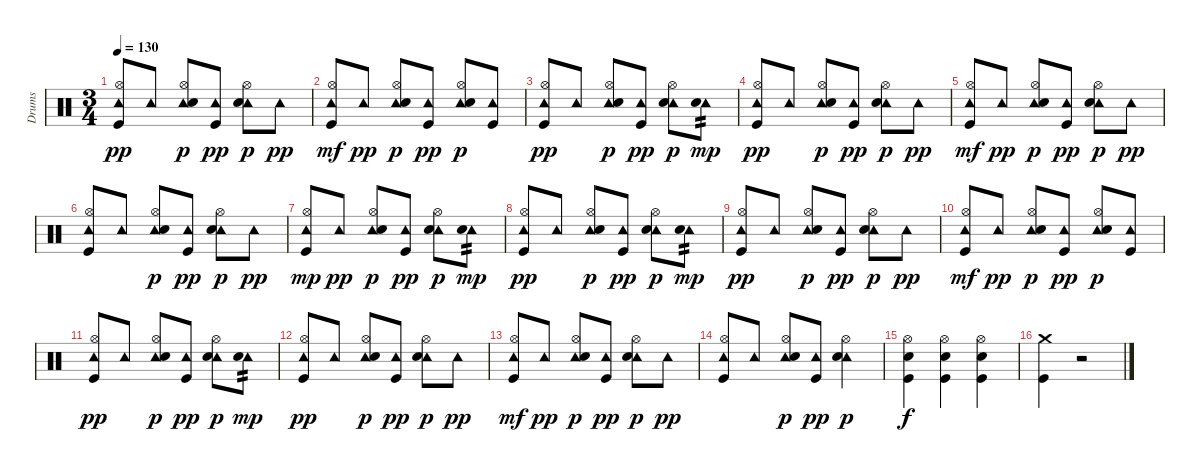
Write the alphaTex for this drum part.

\track ("Drums" "Drums") {instrument percussion}
\staff {score}
\articulation defaults
\ts (3 4)
\tempo 130
\clef neutral
\ks c
("Tambourine (hit)" "Hi-Hat (open)" "Kick (hit)").8{dy pp} "Tambourine (hit)".8 ("Tambourine (hit)" "Hi-Hat (open)" "Snare (hit) 2").8{dy p} ("Tambourine (hit)" "Kick (hit)").8{dy pp} ("Tambourine (hit)" "Hi-Hat (open)" "Snare (hit) 2").8{dy p} "Tambourine (hit)".8{dy pp} |
("Tambourine (hit)" "Hi-Hat (open)" "Kick (hit)").8{dy mf} "Tambourine (hit)".8{dy pp} ("Tambourine (hit)" "Hi-Hat (open)" "Snare (hit) 2").8{dy p} ("Tambourine (hit)" "Kick (hit)").8{dy pp} ("Tambourine (hit)" "Hi-Hat (open)" "Snare (hit) 2").8{dy p} ("Tambourine (hit)" "Kick (hit)").8 |
("Tambourine (hit)" "Hi-Hat (open)" "Kick (hit)").8{dy pp} "Tambourine (hit)".8 ("Tambourine (hit)" "Hi-Hat (open)" "Snare (hit) 2").8{dy p} ("Tambourine (hit)" "Kick (hit)").8{dy pp} ("Tambourine (hit)" "Hi-Hat (open)" "Snare (hit) 2").8{dy p} ("Tambourine (hit)" "Snare (hit) 2").8{tp 2 dy mp} |
("Tambourine (hit)" "Hi-Hat (open)" "Kick (hit)").8{dy pp} "Tambourine (hit)".8 ("Tambourine (hit)" "Hi-Hat (open)" "Snare (hit) 2").8{dy p} ("Tambourine (hit)" "Kick (hit)").8{dy pp} ("Tambourine (hit)" "Hi-Hat (open)" "Snare (hit) 2").8{dy p} "Tambourine (hit)".8{dy pp} |
("Tambourine (hit)" "Hi-Hat (open)" "Kick (hit)").8{dy mf} "Tambourine (hit)".8{dy pp} ("Tambourine (hit)" "Hi-Hat (open)" "Snare (hit) 2").8{dy p} ("Tambourine (hit)" "Kick (hit)").8{dy pp} ("Tambourine (hit)" "Hi-Hat (open)" "Snare (hit) 2").8{dy p} "Tambourine (hit)".8{dy pp} |
("Tambourine (hit)" "Hi-Hat (open)" "Kick (hit)").8 "Tambourine (hit)".8 ("Tambourine (hit)" "Hi-Hat (open)" "Snare (hit) 2").8{dy p} ("Tambourine (hit)" "Kick (hit)").8{dy pp} ("Tambourine (hit)" "Hi-Hat (open)" "Snare (hit) 2").8{dy p} "Tambourine (hit)".8{dy pp} |
("Tambourine (hit)" "Hi-Hat (open)" "Kick (hit)").8{dy mp} "Tambourine (hit)".8{dy pp} ("Tambourine (hit)" "Hi-Hat (open)" "Snare (hit) 2").8{dy p} ("Tambourine (hit)" "Kick (hit)").8{dy pp} ("Tambourine (hit)" "Hi-Hat (open)" "Snare (hit) 2").8{dy p} ("Tambourine (hit)" "Snare (hit) 2").8{tp 2 dy mp} |
("Tambourine (hit)" "Hi-Hat (open)" "Kick (hit)").8{dy pp} "Tambourine (hit)".8 ("Tambourine (hit)" "Hi-Hat (open)" "Snare (hit) 2").8{dy p} ("Tambourine (hit)" "Kick (hit)").8{dy pp} ("Tambourine (hit)" "Hi-Hat (open)" "Snare (hit) 2").8{dy p} ("Tambourine (hit)" "Snare (hit) 2").8{tp 2 dy mp} |
("Tambourine (hit)" "Hi-Hat (open)" "Kick (hit)").8{dy pp} "Tambourine (hit)".8 ("Tambourine (hit)" "Hi-Hat (open)" "Snare (hit) 2").8{dy p} ("Tambourine (hit)" "Kick (hit)").8{dy pp} ("Tambourine (hit)" "Hi-Hat (open)" "Snare (hit) 2").8{dy p} "Tambourine (hit)".8{dy pp} |
("Tambourine (hit)" "Hi-Hat (open)" "Kick (hit)").8{dy mf} "Tambourine (hit)".8{dy pp} ("Tambourine (hit)" "Hi-Hat (open)" "Snare (hit) 2").8{dy p} ("Tambourine (hit)" "Kick (hit)").8{dy pp} ("Tambourine (hit)" "Hi-Hat (open)" "Snare (hit) 2").8{dy p} ("Tambourine (hit)" "Kick (hit)").8 |
("Tambourine (hit)" "Hi-Hat (open)" "Kick (hit)").8{dy pp} "Tambourine (hit)".8 ("Tambourine (hit)" "Hi-Hat (open)" "Snare (hit) 2").8{dy p} ("Tambourine (hit)" "Kick (hit)").8{dy pp} ("Tambourine (hit)" "Hi-Hat (open)" "Snare (hit) 2").8{dy p} ("Tambourine (hit)" "Snare (hit) 2").8{tp 2 dy mp} |
("Tambourine (hit)" "Hi-Hat (open)" "Kick (hit)").8{dy pp} "Tambourine (hit)".8 ("Tambourine (hit)" "Hi-Hat (open)" "Snare (hit) 2").8{dy p} ("Tambourine (hit)" "Kick (hit)").8{dy pp} ("Tambourine (hit)" "Hi-Hat (open)" "Snare (hit) 2").8{dy p} "Tambourine (hit)".8{dy pp} |
("Tambourine (hit)" "Hi-Hat (open)" "Kick (hit)").8{dy mf} "Tambourine (hit)".8{dy pp} ("Tambourine (hit)" "Hi-Hat (open)" "Snare (hit) 2").8{dy p} ("Tambourine (hit)" "Kick (hit)").8{dy pp} ("Tambourine (hit)" "Hi-Hat (open)" "Snare (hit) 2").8{dy p} "Tambourine (hit)".8{dy pp} |
("Tambourine (hit)" "Hi-Hat (open)" "Kick (hit)").8 "Tambourine (hit)".8 ("Tambourine (hit)" "Hi-Hat (open)" "Snare (hit) 2").8{dy p} ("Tambourine (hit)" "Kick (hit)").8{dy pp} ("Tambourine (hit)" "Hi-Hat (open)" "Snare (hit) 2").4{dy p} |
("Hi-Hat (open)" "Snare (hit) 2" "Kick (hit)").4{dy f} ("Hi-Hat (open)" "Snare (hit) 2" "Kick (hit)").4 ("Hi-Hat (open)" "Snare (hit) 2" "Kick (hit)").4 |
("Crash medium (hit)" "Kick (hit)").4 r.2
